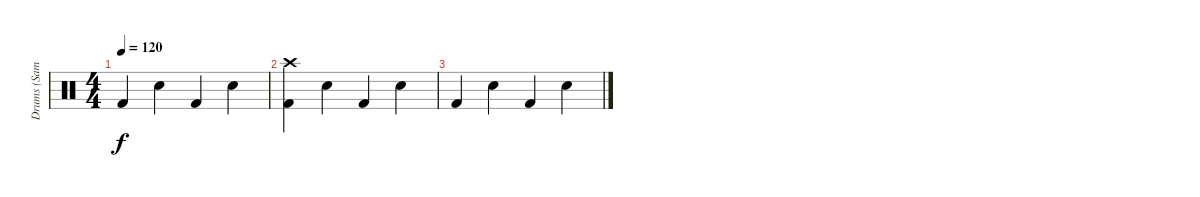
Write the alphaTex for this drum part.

\track ("Drums (Sami Karppinen)" "Drums (Sam") {instrument percussion}
\staff {score}
\articulation defaults
\ts (4 4)
\tempo 120
\clef neutral
\ks c "Kick (hit) 2".4{dy f} "Electric Snare (hit)".4 "Kick (hit) 2".4 "Electric Snare (hit)".4
|
("Crash high (hit)" "Kick (hit) 2").4{volume 8} "Electric Snare (hit)".4 "Kick (hit) 2".4 "Electric Snare (hit)".4 |
"Kick (hit) 2".4 "Electric Snare (hit)".4 "Kick (hit) 2".4 "Electric Snare (hit)".4
